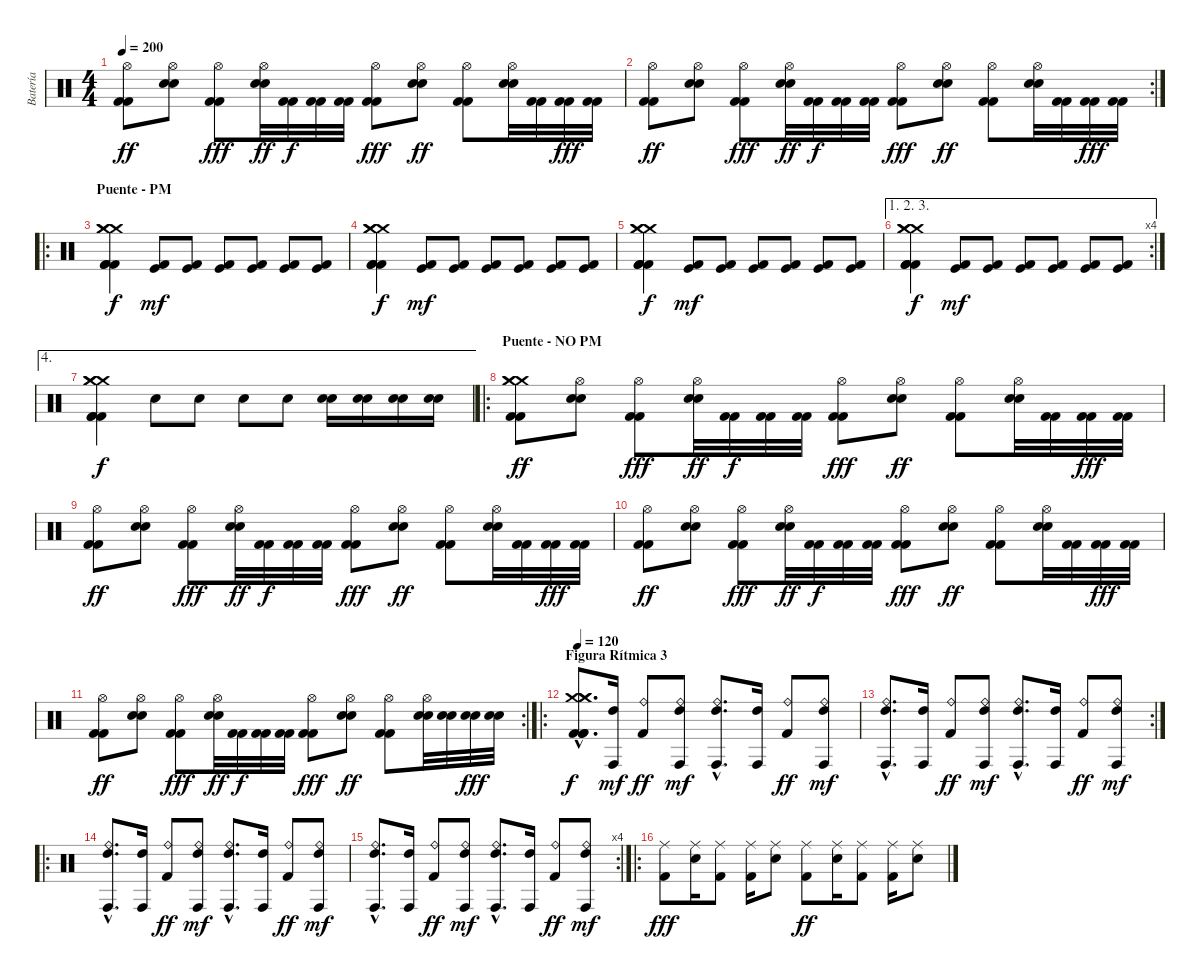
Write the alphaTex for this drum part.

\track ("Batería" "Batería") {instrument percussion}
\staff {score}
\articulation defaults
\ts (4 4)
\tempo 200
\clef neutral
\ks c
("Hi-Hat (open)" "Kick (hit) 2" "Kick (hit) 2").8{dy ff} ("Hi-Hat (open)" "Electric Snare (hit)" "Electric Snare (hit)").8 ("Hi-Hat (open)" "Kick (hit) 2" "Kick (hit) 2").8{dy fff} ("Hi-Hat (open)" "Electric Snare (hit)" "Electric Snare (hit)").32{dy ff} ("Kick (hit) 2" "Kick (hit) 2").32{dy f} ("Kick (hit) 2" "Kick (hit) 2").32 ("Kick (hit) 2" "Kick (hit) 2").32 ("Hi-Hat (open)" "Kick (hit) 2" "Kick (hit) 2").8{dy fff} ("Hi-Hat (open)" "Electric Snare (hit)" "Electric Snare (hit)").8{dy ff} ("Hi-Hat (open)" "Kick (hit) 2" "Kick (hit) 2").8 ("Hi-Hat (open)" "Electric Snare (hit)" "Electric Snare (hit)").32 ("Kick (hit) 2" "Kick (hit) 2").32 ("Kick (hit) 2" "Kick (hit) 2").32{dy fff} ("Kick (hit) 2" "Kick (hit) 2").32 |
\rc 2
("Hi-Hat (open)" "Kick (hit) 2" "Kick (hit) 2").8{dy ff} ("Hi-Hat (open)" "Electric Snare (hit)" "Electric Snare (hit)").8 ("Hi-Hat (open)" "Kick (hit) 2" "Kick (hit) 2").8{dy fff} ("Hi-Hat (open)" "Electric Snare (hit)" "Electric Snare (hit)").32{dy ff} ("Kick (hit) 2" "Kick (hit) 2").32{dy f} ("Kick (hit) 2" "Kick (hit) 2").32 ("Kick (hit) 2" "Kick (hit) 2").32 ("Hi-Hat (open)" "Kick (hit) 2" "Kick (hit) 2").8{dy fff} ("Hi-Hat (open)" "Electric Snare (hit)" "Electric Snare (hit)").8{dy ff} ("Hi-Hat (open)" "Kick (hit) 2" "Kick (hit) 2").8 ("Hi-Hat (open)" "Electric Snare (hit)" "Electric Snare (hit)").32 ("Kick (hit) 2" "Kick (hit) 2").32 ("Kick (hit) 2" "Kick (hit) 2").32{dy fff} ("Kick (hit) 2" "Kick (hit) 2").32 |
\ro
\section ("" "Puente - PM")
("Crash medium (hit)" "Crash medium (hit)" "Crash medium (hit)" "Kick (hit) 2" "Kick (hit) 2" "Kick (hit) 2").4{dy f} ("Kick (hit)" "Kick (hit) 2").8{dy mf} ("Kick (hit)" "Kick (hit) 2").8 ("Kick (hit)" "Kick (hit) 2").8 ("Kick (hit)" "Kick (hit) 2").8 ("Kick (hit)" "Kick (hit) 2").8 ("Kick (hit)" "Kick (hit) 2").8 |
("Crash medium (hit)" "Crash medium (hit)" "Crash medium (hit)" "Kick (hit) 2" "Kick (hit) 2" "Kick (hit) 2").4{dy f} ("Kick (hit)" "Kick (hit) 2").8{dy mf} ("Kick (hit)" "Kick (hit) 2").8 ("Kick (hit)" "Kick (hit) 2").8 ("Kick (hit)" "Kick (hit) 2").8 ("Kick (hit)" "Kick (hit) 2").8 ("Kick (hit)" "Kick (hit) 2").8 |
("Crash medium (hit)" "Crash medium (hit)" "Crash medium (hit)" "Kick (hit) 2" "Kick (hit) 2" "Kick (hit) 2").4{dy f} ("Kick (hit)" "Kick (hit) 2").8{dy mf} ("Kick (hit)" "Kick (hit) 2").8 ("Kick (hit)" "Kick (hit) 2").8 ("Kick (hit)" "Kick (hit) 2").8 ("Kick (hit)" "Kick (hit) 2").8 ("Kick (hit)" "Kick (hit) 2").8 |
\ae (1 2 3)
\rc 4
("Crash medium (hit)" "Crash medium (hit)" "Crash medium (hit)" "Kick (hit) 2" "Kick (hit) 2" "Kick (hit) 2").4{dy f} ("Kick (hit)" "Kick (hit) 2").8{dy mf} ("Kick (hit)" "Kick (hit) 2").8 ("Kick (hit)" "Kick (hit) 2").8 ("Kick (hit)" "Kick (hit) 2").8 ("Kick (hit)" "Kick (hit) 2").8 ("Kick (hit)" "Kick (hit) 2").8 |
\ae 4
("Crash medium (hit)" "Crash medium (hit)" "Crash medium (hit)" "Kick (hit) 2" "Kick (hit) 2" "Kick (hit) 2").4{dy f} "Electric Snare (hit)".8 "Electric Snare (hit)".8 "Electric Snare (hit)".8 "Electric Snare (hit)".8 ("Electric Snare (hit)" "Electric Snare (hit)").16 ("Electric Snare (hit)" "Electric Snare (hit)").16 ("Electric Snare (hit)" "Electric Snare (hit)").16 ("Electric Snare (hit)" "Electric Snare (hit)").16 |
\ro
\section ("" "Puente - NO PM")
("Crash medium (hit)" "Crash medium (hit)" "Crash medium (hit)" "Kick (hit) 2" "Kick (hit) 2").8{dy ff} ("Hi-Hat (open)" "Electric Snare (hit)" "Electric Snare (hit)").8 ("Hi-Hat (open)" "Kick (hit) 2" "Kick (hit) 2").8{dy fff} ("Hi-Hat (open)" "Electric Snare (hit)" "Electric Snare (hit)").32{dy ff} ("Kick (hit) 2" "Kick (hit) 2").32{dy f} ("Kick (hit) 2" "Kick (hit) 2").32 ("Kick (hit) 2" "Kick (hit) 2").32 ("Hi-Hat (open)" "Kick (hit) 2" "Kick (hit) 2").8{dy fff} ("Hi-Hat (open)" "Electric Snare (hit)" "Electric Snare (hit)").8{dy ff} ("Hi-Hat (open)" "Kick (hit) 2" "Kick (hit) 2").8 ("Hi-Hat (open)" "Electric Snare (hit)" "Electric Snare (hit)").32 ("Kick (hit) 2" "Kick (hit) 2").32 ("Kick (hit) 2" "Kick (hit) 2").32{dy fff} ("Kick (hit) 2" "Kick (hit) 2").32 |
("Hi-Hat (open)" "Kick (hit) 2" "Kick (hit) 2").8{dy ff} ("Hi-Hat (open)" "Electric Snare (hit)" "Electric Snare (hit)").8 ("Hi-Hat (open)" "Kick (hit) 2" "Kick (hit) 2").8{dy fff} ("Hi-Hat (open)" "Electric Snare (hit)" "Electric Snare (hit)").32{dy ff} ("Kick (hit) 2" "Kick (hit) 2").32{dy f} ("Kick (hit) 2" "Kick (hit) 2").32 ("Kick (hit) 2" "Kick (hit) 2").32 ("Hi-Hat (open)" "Kick (hit) 2" "Kick (hit) 2").8{dy fff} ("Hi-Hat (open)" "Electric Snare (hit)" "Electric Snare (hit)").8{dy ff} ("Hi-Hat (open)" "Kick (hit) 2" "Kick (hit) 2").8 ("Hi-Hat (open)" "Electric Snare (hit)" "Electric Snare (hit)").32 ("Kick (hit) 2" "Kick (hit) 2").32 ("Kick (hit) 2" "Kick (hit) 2").32{dy fff} ("Kick (hit) 2" "Kick (hit) 2").32 |
("Hi-Hat (open)" "Kick (hit) 2" "Kick (hit) 2").8{dy ff} ("Hi-Hat (open)" "Electric Snare (hit)" "Electric Snare (hit)").8 ("Hi-Hat (open)" "Kick (hit) 2" "Kick (hit) 2").8{dy fff} ("Hi-Hat (open)" "Electric Snare (hit)" "Electric Snare (hit)").32{dy ff} ("Kick (hit) 2" "Kick (hit) 2").32{dy f} ("Kick (hit) 2" "Kick (hit) 2").32 ("Kick (hit) 2" "Kick (hit) 2").32 ("Hi-Hat (open)" "Kick (hit) 2" "Kick (hit) 2").8{dy fff} ("Hi-Hat (open)" "Electric Snare (hit)" "Electric Snare (hit)").8{dy ff} ("Hi-Hat (open)" "Kick (hit) 2" "Kick (hit) 2").8 ("Hi-Hat (open)" "Electric Snare (hit)" "Electric Snare (hit)").32 ("Kick (hit) 2" "Kick (hit) 2").32 ("Kick (hit) 2" "Kick (hit) 2").32{dy fff} ("Kick (hit) 2" "Kick (hit) 2").32 |
\rc 2
("Hi-Hat (open)" "Kick (hit) 2" "Kick (hit) 2").8{dy ff} ("Hi-Hat (open)" "Electric Snare (hit)" "Electric Snare (hit)").8 ("Hi-Hat (open)" "Kick (hit) 2" "Kick (hit) 2").8{dy fff} ("Hi-Hat (open)" "Electric Snare (hit)" "Electric Snare (hit)").32{dy ff} ("Kick (hit) 2" "Kick (hit) 2").32{dy f} ("Kick (hit) 2" "Kick (hit) 2").32 ("Kick (hit) 2" "Kick (hit) 2").32 ("Hi-Hat (open)" "Kick (hit) 2" "Kick (hit) 2").8{dy fff} ("Hi-Hat (open)" "Electric Snare (hit)" "Electric Snare (hit)").8{dy ff} ("Hi-Hat (open)" "Kick (hit) 2" "Kick (hit) 2").8 ("Hi-Hat (open)" "Electric Snare (hit)" "Electric Snare (hit)").32 ("Electric Snare (hit)" "Electric Snare (hit)").32 ("Electric Snare (hit)" "Electric Snare (hit)").32{dy fff} ("Electric Snare (hit)" "Electric Snare (hit)").32 |
\ro
\section ("" "Figura Rítmica 3")
\tempo 120
("Crash medium (hit)"{hac} "Crash medium (hit)"{hac} "Crash medium (hit)"{hac} "Kick (hit) 2"{hac} "Kick (hit) 2"{hac} "Kick (hit) 2"{hac}).8{d dy f} ("Conga high (hit)" "High Tom (hit)").16{dy mf} ("Ride (bell)" "Kick (hit) 2").8{dy ff} ("Ride (bell)" "Conga high (hit)" "High Tom (hit)").8{dy mf} ("Ride (bell)"{hac} "Conga high (hit)"{hac} "High Tom (hit)"{hac}).8{d} ("Conga high (hit)" "High Tom (hit)").16 ("Ride (bell)" "Kick (hit) 2").8{dy ff} ("Ride (bell)" "Conga high (hit)" "High Tom (hit)").8{dy mf} |
\rc 2
("Ride (bell)"{hac} "Conga high (hit)"{hac} "High Tom (hit)"{hac}).8{d} ("Conga high (hit)" "High Tom (hit)").16 ("Ride (bell)" "Kick (hit) 2").8{dy ff} ("Ride (bell)" "Conga high (hit)" "High Tom (hit)").8{dy mf} ("Ride (bell)"{hac} "Conga high (hit)"{hac} "High Tom (hit)"{hac}).8{d} ("Conga high (hit)" "High Tom (hit)").16 ("Ride (bell)" "Kick (hit) 2").8{dy ff} ("Ride (bell)" "Conga high (hit)" "High Tom (hit)").8{dy mf} |
\ro
("Ride (bell)"{hac} "Conga high (hit)"{hac} "High Tom (hit)"{hac}).8{d} ("Conga high (hit)" "High Tom (hit)").16 ("Ride (bell)" "Kick (hit) 2").8{dy ff} ("Ride (bell)" "Conga high (hit)" "High Tom (hit)").8{dy mf} ("Ride (bell)"{hac} "Conga high (hit)"{hac} "High Tom (hit)"{hac}).8{d} ("Conga high (hit)" "High Tom (hit)").16 ("Ride (bell)" "Kick (hit) 2").8{dy ff} ("Ride (bell)" "Conga high (hit)" "High Tom (hit)").8{dy mf} |
\rc 4
("Ride (bell)"{hac} "Conga high (hit)"{hac} "High Tom (hit)"{hac}).8{d} ("Conga high (hit)" "High Tom (hit)").16 ("Ride (bell)" "Kick (hit) 2").8{dy ff} ("Ride (bell)" "Conga high (hit)" "High Tom (hit)").8{dy mf} ("Ride (bell)"{hac} "Conga high (hit)"{hac} "High Tom (hit)"{hac}).8{d} ("Conga high (hit)" "High Tom (hit)").16 ("Ride (bell)" "Kick (hit) 2").8{dy ff} ("Ride (bell)" "Conga high (hit)" "High Tom (hit)").8{dy mf} |
\ro
("Ride (middle)" "Kick (hit) 2").8{dy fff} ("Ride (middle)" "Electric Snare (hit)").16 ("Ride (middle)" "Kick (hit) 2").8 ("Ride (middle)" "Kick (hit) 2").16 ("Ride (middle)" "Electric Snare (hit)").8 ("Ride (middle)" "Kick (hit) 2").8{dy ff} ("Ride (middle)" "Electric Snare (hit)").16 ("Ride (middle)" "Kick (hit) 2").8 ("Ride (middle)" "Kick (hit) 2").16 ("Ride (middle)" "Electric Snare (hit)").8
